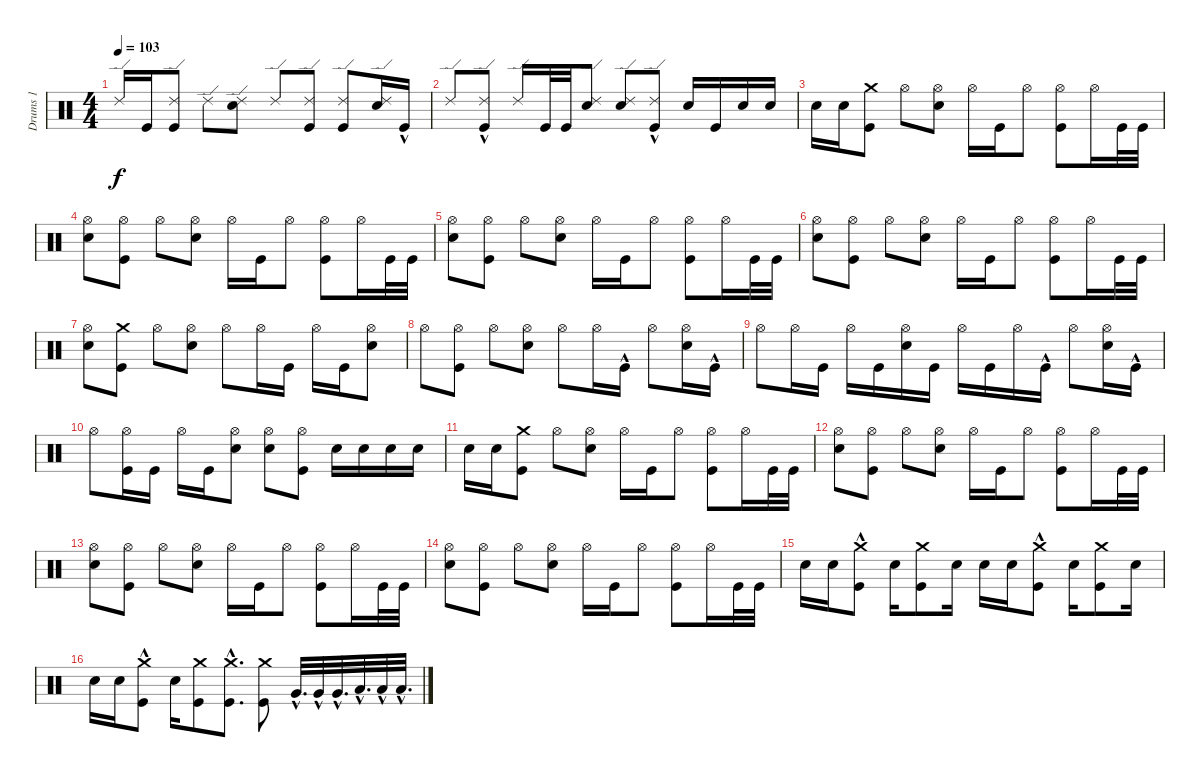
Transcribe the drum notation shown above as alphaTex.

\track ("Drums 1" "Drums 1") {instrument percussion}
\staff {score}
\articulation defaults
\ts (4 4)
\tempo 103
\clef neutral
\ks c "Ride (edge) 2".16{dy f} "Kick (hit)".16
("Kick (hit)" "Ride (edge) 2").8 "Ride (edge) 2".8 ("Electric Snare (hit)" "Ride (edge) 2").8 "Ride (edge) 2".8 ("Kick (hit)" "Ride (edge) 2").8 ("Kick (hit)" "Ride (edge) 2").8 ("Electric Snare (hit)" "Ride (edge) 2").16 "Kick (hit)"{hac}.16 |
"Ride (edge) 2".8 ("Kick (hit)"{hac} "Ride (edge) 2").8 "Ride (edge) 2".16 "Kick (hit)".32 "Kick (hit)".32 ("Electric Snare (hit)" "Ride (edge) 2").8 ("Electric Snare (hit)" "Ride (edge) 2").8 ("Kick (hit)"{hac} "Ride (edge) 2").8 "Electric Snare (hit)".16 "Kick (hit)".16 "Snare (hit) 2".16 "Electric Snare (hit)".16 |
"Electric Snare (hit)".16 "Electric Snare (hit)".16 ("Kick (hit)" "Crash medium (hit)").8 "Hi-Hat (open)".8 ("Electric Snare (hit)" "Hi-Hat (open)").8 "Hi-Hat (open)".16 "Kick (hit)".16 "Hi-Hat (open)".8 ("Kick (hit)" "Hi-Hat (open)").8 "Hi-Hat (open)".16 "Kick (hit)".32 "Kick (hit)".32 |
("Electric Snare (hit)" "Hi-Hat (open)").8 ("Kick (hit)" "Hi-Hat (open)").8 "Hi-Hat (open)".8 ("Electric Snare (hit)" "Hi-Hat (open)").8 "Hi-Hat (open)".16 "Kick (hit)".16 "Hi-Hat (open)".8 ("Kick (hit)" "Hi-Hat (open)").8 "Hi-Hat (open)".16 "Kick (hit)".32 "Kick (hit)".32 |
("Electric Snare (hit)" "Hi-Hat (open)").8 ("Kick (hit)" "Hi-Hat (open)").8 "Hi-Hat (open)".8 ("Electric Snare (hit)" "Hi-Hat (open)").8 "Hi-Hat (open)".16 "Kick (hit)".16 "Hi-Hat (open)".8 ("Kick (hit)" "Hi-Hat (open)").8 "Hi-Hat (open)".16 "Kick (hit)".32 "Kick (hit)".32 |
("Electric Snare (hit)" "Hi-Hat (open)").8 ("Kick (hit)" "Hi-Hat (open)").8 "Hi-Hat (open)".8 ("Electric Snare (hit)" "Hi-Hat (open)").8 "Hi-Hat (open)".16 "Kick (hit)".16 "Hi-Hat (open)".8 ("Kick (hit)" "Hi-Hat (open)").8 "Hi-Hat (open)".16 "Kick (hit)".32 "Kick (hit)".32 |
("Electric Snare (hit)" "Hi-Hat (open)").8 ("Kick (hit)" "Crash medium (hit)").8 "Hi-Hat (open)".8 ("Electric Snare (hit)" "Hi-Hat (open)").8 "Hi-Hat (open)".8 "Hi-Hat (open)".16 "Kick (hit)".16 "Hi-Hat (open)".16 "Kick (hit)".16 ("Electric Snare (hit)" "Hi-Hat (open)").8 |
"Hi-Hat (open)".8 ("Kick (hit)" "Hi-Hat (open)").8 "Hi-Hat (open)".8 ("Electric Snare (hit)" "Hi-Hat (open)").8 "Hi-Hat (open)".8 "Hi-Hat (open)".16 "Kick (hit)"{hac}.16 "Hi-Hat (open)".8 ("Electric Snare (hit)" "Hi-Hat (open)").16 "Kick (hit)"{hac}.16 |
"Hi-Hat (open)".8 "Hi-Hat (open)".16 "Kick (hit)".16 "Hi-Hat (open)".16 "Kick (hit)".16 ("Electric Snare (hit)" "Hi-Hat (open)").16 "Kick (hit)".16 "Hi-Hat (open)".16 "Kick (hit)".16 "Hi-Hat (open)".16 "Kick (hit)"{hac}.16 "Hi-Hat (open)".8 ("Electric Snare (hit)" "Hi-Hat (open)").16 "Kick (hit)"{hac}.16 |
"Hi-Hat (open)".8 ("Kick (hit)" "Hi-Hat (open)").16 "Kick (hit)".16 "Hi-Hat (open)".16 "Kick (hit)".16 ("Electric Snare (hit)" "Hi-Hat (open)").8 ("Electric Snare (hit)" "Hi-Hat (open)").8 ("Kick (hit)" "Hi-Hat (open)").8 "Electric Snare (hit)".16 "Electric Snare (hit)".16 "Electric Snare (hit)".16 "Electric Snare (hit)".16 |
"Electric Snare (hit)".16 "Electric Snare (hit)".16 ("Kick (hit)" "Crash medium (hit)").8 "Hi-Hat (open)".8 ("Electric Snare (hit)" "Hi-Hat (open)").8 "Hi-Hat (open)".16 "Kick (hit)".16 "Hi-Hat (open)".8 ("Kick (hit)" "Hi-Hat (open)").8 "Hi-Hat (open)".16 "Kick (hit)".32 "Kick (hit)".32 |
("Electric Snare (hit)" "Hi-Hat (open)").8 ("Kick (hit)" "Hi-Hat (open)").8 "Hi-Hat (open)".8 ("Electric Snare (hit)" "Hi-Hat (open)").8 "Hi-Hat (open)".16 "Kick (hit)".16 "Hi-Hat (open)".8 ("Kick (hit)" "Hi-Hat (open)").8 "Hi-Hat (open)".16 "Kick (hit)".32 "Kick (hit)".32 |
("Electric Snare (hit)" "Hi-Hat (open)").8 ("Kick (hit)" "Hi-Hat (open)").8 "Hi-Hat (open)".8 ("Electric Snare (hit)" "Hi-Hat (open)").8 "Hi-Hat (open)".16 "Kick (hit)".16 "Hi-Hat (open)".8 ("Kick (hit)" "Hi-Hat (open)").8 "Hi-Hat (open)".16 "Kick (hit)".32 "Kick (hit)".32 |
("Electric Snare (hit)" "Hi-Hat (open)").8 ("Kick (hit)" "Hi-Hat (open)").8 "Hi-Hat (open)".8 ("Electric Snare (hit)" "Hi-Hat (open)").8 "Hi-Hat (open)".16 "Kick (hit)".16 "Hi-Hat (open)".8 ("Kick (hit)" "Hi-Hat (open)").8 "Hi-Hat (open)".16 "Kick (hit)".32 "Kick (hit)".32 |
"Electric Snare (hit)".16 "Electric Snare (hit)".16 ("Kick (hit)"{hac} "Crash medium (hit)").8 "Electric Snare (hit)".16 ("Kick (hit)" "Crash medium (hit)").8 "Electric Snare (hit)".16 "Electric Snare (hit)".16 "Electric Snare (hit)".16 ("Kick (hit)"{hac} "Crash medium (hit)").8 "Electric Snare (hit)".16 ("Crash medium (hit)" "Kick (hit)").8 "Electric Snare (hit)".16 |
"Electric Snare (hit)".16 "Electric Snare (hit)".16 ("Kick (hit)"{hac} "Crash medium (hit)").8 "Electric Snare (hit)".16 ("Kick (hit)" "Crash medium (hit)").8 ("Kick (hit)"{hac} "Crash medium (hit)"{hac}).8{d} ("Kick (hit)" "Crash medium (hit)").8 "Very Low Tom (hit)"{hac}.32{d} "Very Low Tom (hit)"{hac}.32 "Very Low Tom (hit)"{hac}.32{d} "Low Floor Tom (hit)"{hac}.32{d} "Low Floor Tom (hit)"{hac}.32 "Low Floor Tom (hit)"{hac}.32{d}
